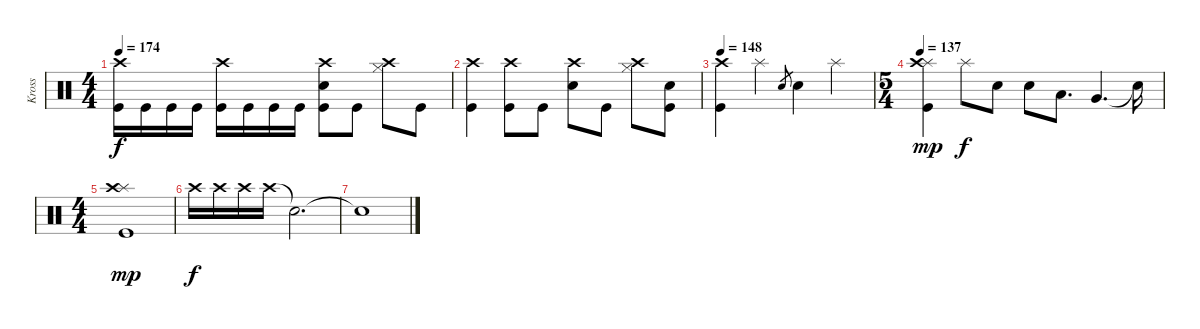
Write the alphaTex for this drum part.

\track ("Kross" "Kross") {instrument percussion}
\staff {score}
\articulation defaults
\ts (4 4)
\tempo 174
\clef neutral
\ks c
("Crash high (hit)" "Kick (hit)").16{dy f} "Kick (hit)".16 "Kick (hit)".16 "Kick (hit)".16 ("Crash high (hit)" "Kick (hit)").16 "Kick (hit)".16 "Kick (hit)".16 "Kick (hit)".16 ("Crash high (hit)" "Snare (hit) 2" "Kick (hit)").8 "Kick (hit)".8 ("Crash high (hit)" "Hi-Hat (closed)").8 "Kick (hit)".8 |
("Crash high (hit)" "Kick (hit)").4 ("Crash high (hit)" "Kick (hit)").8 "Kick (hit)".8 ("Crash high (hit)" "Snare (hit) 2").8 "Kick (hit)".8 ("Crash high (hit)" "Hi-Hat (closed)").8 ("Snare (hit) 2" "Kick (hit)").8 |
\tempo 148
("Crash high (hit)" "Kick (hit)").4 "Splash (hit)".4 "Snare (hit) 2".8{gr} "Snare (hit) 2".4 "Splash (hit)".4 |
\ts (5 4)
\tempo 137
("Splash (hit)" "Crash high (hit)" "Kick (hit)").4{dy mp} "Splash (hit)".8{dy f} "Snare (hit) 2".8 "Snare (hit) 2".8 "Low Tom (hit)".8{d} "Very Low Tom (hit)".4{d} "Snare (hit)"{t}.16 |
\ts (4 4)
("Splash (hit)" "Crash high (hit)" "Kick (hit)").1{dy mp} |
"Crash high (hit)".16{dy f volume 0} "Crash high (hit)".16 "Crash high (hit)".16 "Crash high (hit)".16 "Snare (hit)"{t}.2{d} |
"Snare (hit)"{t}.1{volume 8}
